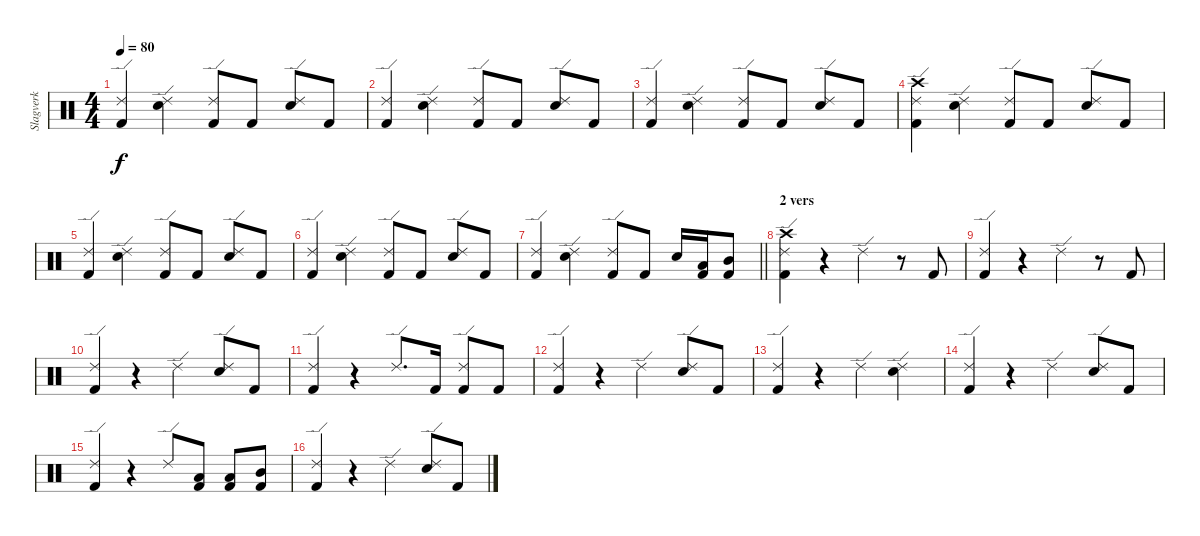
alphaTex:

\track ("Slagverk" "Slagverk") {instrument percussion}
\staff {score}
\articulation defaults
\ts (4 4)
\tempo 80
\clef neutral
\ks c
("Ride (edge) 2" "Kick (hit) 2").4{dy f} ("Electric Snare (hit)" "Ride (edge) 2").4 ("Ride (edge) 2" "Kick (hit) 2").8 "Kick (hit) 2".8 ("Electric Snare (hit)" "Ride (edge) 2").8 "Kick (hit) 2".8 |
("Ride (edge) 2" "Kick (hit) 2").4 ("Electric Snare (hit)" "Ride (edge) 2").4 ("Ride (edge) 2" "Kick (hit) 2").8 "Kick (hit) 2".8 ("Electric Snare (hit)" "Ride (edge) 2").8 "Kick (hit) 2".8 |
("Ride (edge) 2" "Kick (hit) 2").4 ("Electric Snare (hit)" "Ride (edge) 2").4 ("Ride (edge) 2" "Kick (hit) 2").8 "Kick (hit) 2".8 ("Electric Snare (hit)" "Ride (edge) 2").8 "Kick (hit) 2".8 |
("Ride (edge) 2" "Kick (hit) 2" "Crash high (hit)").4 ("Electric Snare (hit)" "Ride (edge) 2").4 ("Ride (edge) 2" "Kick (hit) 2").8 "Kick (hit) 2".8 ("Electric Snare (hit)" "Ride (edge) 2").8 "Kick (hit) 2".8 |
("Ride (edge) 2" "Kick (hit) 2").4 ("Electric Snare (hit)" "Ride (edge) 2").4 ("Ride (edge) 2" "Kick (hit) 2").8 "Kick (hit) 2".8 ("Electric Snare (hit)" "Ride (edge) 2").8 "Kick (hit) 2".8 |
("Ride (edge) 2" "Kick (hit) 2").4 ("Electric Snare (hit)" "Ride (edge) 2").4 ("Ride (edge) 2" "Kick (hit) 2").8 "Kick (hit) 2".8 ("Electric Snare (hit)" "Ride (edge) 2").8 "Kick (hit) 2".8 |
\barLineRight lightlight
("Ride (edge) 2" "Kick (hit) 2").4 ("Electric Snare (hit)" "Ride (edge) 2").4 ("Ride (edge) 2" "Kick (hit) 2").8 "Kick (hit) 2".8 "Electric Snare (hit)".16 ("Low Tom (hit)" "Kick (hit) 2").16 ("Mid Tom (hit)" "Kick (hit) 2").8 |
\section ("" "2 vers")
("Ride (edge) 2" "Kick (hit) 2" "Crash high (hit)").4 r.4 "Ride (edge) 2".4 r.8 "Kick (hit) 2".8 |
("Ride (edge) 2" "Kick (hit) 2").4 r.4 "Ride (edge) 2".4 r.8 "Kick (hit) 2".8 |
("Ride (edge) 2" "Kick (hit) 2").4 r.4 "Ride (edge) 2".4 ("Electric Snare (hit)" "Ride (edge) 2").8 "Kick (hit) 2".8 |
("Ride (edge) 2" "Kick (hit) 2").4 r.4 "Ride (edge) 2".8{d} "Kick (hit) 2".16 ("Ride (edge) 2" "Kick (hit) 2").8 "Kick (hit) 2".8 |
("Ride (edge) 2" "Kick (hit) 2").4 r.4 "Ride (edge) 2".4 ("Electric Snare (hit)" "Ride (edge) 2").8 "Kick (hit) 2".8 |
("Ride (edge) 2" "Kick (hit) 2").4 r.4 "Ride (edge) 2".4 ("Electric Snare (hit)" "Ride (edge) 2").4 |
("Ride (edge) 2" "Kick (hit) 2").4 r.4 "Ride (edge) 2".4 ("Electric Snare (hit)" "Ride (edge) 2").8 "Kick (hit) 2".8 |
("Kick (hit) 2" "Ride (edge) 2").4 r.4 "Ride (edge) 2".8 ("Low Tom (hit)" "Kick (hit) 2").8 ("Low Tom (hit)" "Kick (hit) 2").8 ("Mid Tom (hit)" "Kick (hit) 2").8 |
("Ride (edge) 2" "Kick (hit) 2").4 r.4 "Ride (edge) 2".4 ("Snare (hit) 2" "Ride (edge) 2").8 "Kick (hit) 2".8
